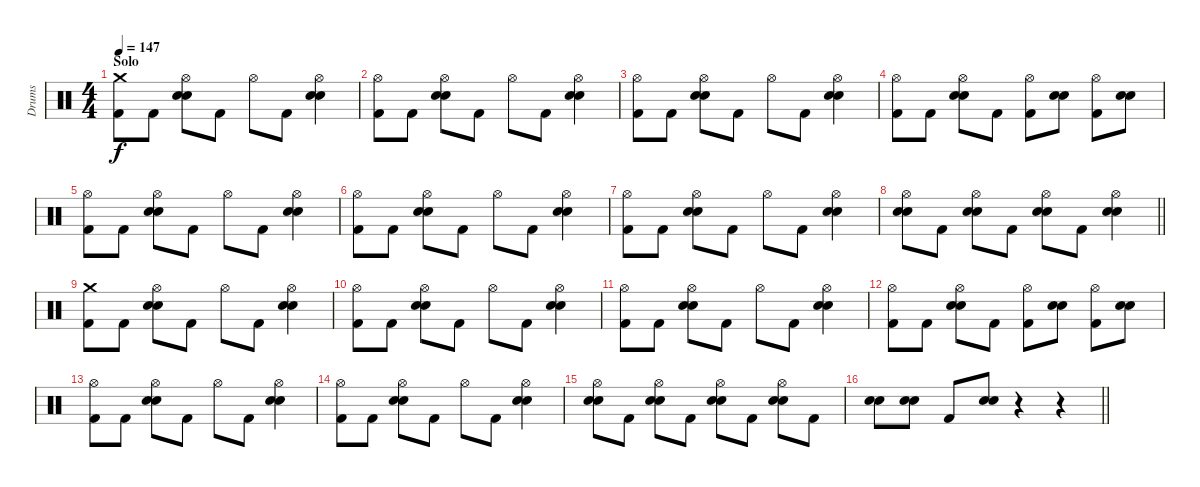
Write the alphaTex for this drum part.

\track ("Drums" "Drums") {instrument percussion}
\staff {score}
\articulation defaults
\ts (4 4)
\section ("" "Solo")
\tempo 147
\clef neutral
\ks c
("Crash medium (hit)" "Kick (hit) 2").8{dy f} "Kick (hit) 2".8 ("Hi-Hat (open)" "Electric Snare (hit)" "Snare (hit) 2").8 "Kick (hit) 2".8 "Hi-Hat (open)".8 "Kick (hit) 2".8 ("Hi-Hat (open)" "Electric Snare (hit)" "Snare (hit) 2").4 |
("Hi-Hat (open)" "Kick (hit) 2").8 "Kick (hit) 2".8 ("Hi-Hat (open)" "Electric Snare (hit)" "Snare (hit) 2").8 "Kick (hit) 2".8 "Hi-Hat (open)".8 "Kick (hit) 2".8 ("Hi-Hat (open)" "Electric Snare (hit)" "Snare (hit) 2").4 |
("Hi-Hat (open)" "Kick (hit) 2").8 "Kick (hit) 2".8 ("Hi-Hat (open)" "Electric Snare (hit)" "Snare (hit) 2").8 "Kick (hit) 2".8 "Hi-Hat (open)".8 "Kick (hit) 2".8 ("Hi-Hat (open)" "Electric Snare (hit)" "Snare (hit) 2").4 |
("Hi-Hat (open)" "Kick (hit) 2").8 "Kick (hit) 2".8 ("Hi-Hat (open)" "Electric Snare (hit)" "Snare (hit) 2").8 "Kick (hit) 2".8 ("Hi-Hat (open)" "Kick (hit) 2").8 ("Electric Snare (hit)" "Snare (hit) 2").8 ("Hi-Hat (open)" "Kick (hit) 2").8 ("Electric Snare (hit)" "Snare (hit) 2").8 |
("Hi-Hat (open)" "Kick (hit) 2").8 "Kick (hit) 2".8 ("Hi-Hat (open)" "Electric Snare (hit)" "Snare (hit) 2").8 "Kick (hit) 2".8 "Hi-Hat (open)".8 "Kick (hit) 2".8 ("Hi-Hat (open)" "Electric Snare (hit)" "Snare (hit) 2").4 |
("Hi-Hat (open)" "Kick (hit) 2").8 "Kick (hit) 2".8 ("Hi-Hat (open)" "Electric Snare (hit)" "Snare (hit) 2").8 "Kick (hit) 2".8 "Hi-Hat (open)".8 "Kick (hit) 2".8 ("Hi-Hat (open)" "Electric Snare (hit)" "Snare (hit) 2").4 |
("Hi-Hat (open)" "Kick (hit) 2").8 "Kick (hit) 2".8 ("Hi-Hat (open)" "Electric Snare (hit)" "Snare (hit) 2").8 "Kick (hit) 2".8 "Hi-Hat (open)".8 "Kick (hit) 2".8 ("Hi-Hat (open)" "Electric Snare (hit)" "Snare (hit) 2").4 |
\barLineRight lightlight
("Hi-Hat (open)" "Electric Snare (hit)" "Snare (hit) 2").8 "Kick (hit) 2".8 ("Hi-Hat (open)" "Electric Snare (hit)" "Snare (hit) 2").8 "Kick (hit) 2".8 ("Hi-Hat (open)" "Electric Snare (hit)" "Snare (hit) 2").8 "Kick (hit) 2".8 ("Hi-Hat (open)" "Electric Snare (hit)" "Snare (hit) 2").4 |
\section ("" "")
("Crash medium (hit)" "Kick (hit) 2").8 "Kick (hit) 2".8 ("Hi-Hat (open)" "Electric Snare (hit)" "Snare (hit) 2").8 "Kick (hit) 2".8 "Hi-Hat (open)".8 "Kick (hit) 2".8 ("Hi-Hat (open)" "Electric Snare (hit)" "Snare (hit) 2").4 |
("Hi-Hat (open)" "Kick (hit) 2").8 "Kick (hit) 2".8 ("Hi-Hat (open)" "Electric Snare (hit)" "Snare (hit) 2").8 "Kick (hit) 2".8 "Hi-Hat (open)".8 "Kick (hit) 2".8 ("Hi-Hat (open)" "Electric Snare (hit)" "Snare (hit) 2").4 |
("Hi-Hat (open)" "Kick (hit) 2").8 "Kick (hit) 2".8 ("Hi-Hat (open)" "Electric Snare (hit)" "Snare (hit) 2").8 "Kick (hit) 2".8 "Hi-Hat (open)".8 "Kick (hit) 2".8 ("Hi-Hat (open)" "Electric Snare (hit)" "Snare (hit) 2").4 |
("Hi-Hat (open)" "Kick (hit) 2").8 "Kick (hit) 2".8 ("Hi-Hat (open)" "Electric Snare (hit)" "Snare (hit) 2").8 "Kick (hit) 2".8 ("Hi-Hat (open)" "Kick (hit) 2").8 ("Electric Snare (hit)" "Snare (hit) 2").8 ("Hi-Hat (open)" "Kick (hit) 2").8 ("Electric Snare (hit)" "Snare (hit) 2").8 |
("Hi-Hat (open)" "Kick (hit) 2").8 "Kick (hit) 2".8 ("Hi-Hat (open)" "Electric Snare (hit)" "Snare (hit) 2").8 "Kick (hit) 2".8 "Hi-Hat (open)".8 "Kick (hit) 2".8 ("Hi-Hat (open)" "Electric Snare (hit)" "Snare (hit) 2").4 |
("Hi-Hat (open)" "Kick (hit) 2").8 "Kick (hit) 2".8 ("Hi-Hat (open)" "Electric Snare (hit)" "Snare (hit) 2").8 "Kick (hit) 2".8 "Hi-Hat (open)".8 "Kick (hit) 2".8 ("Hi-Hat (open)" "Electric Snare (hit)" "Snare (hit) 2").4 |
("Hi-Hat (open)" "Electric Snare (hit)" "Snare (hit) 2").8 "Kick (hit) 2".8 ("Hi-Hat (open)" "Electric Snare (hit)" "Snare (hit) 2").8 "Kick (hit) 2".8 ("Hi-Hat (open)" "Electric Snare (hit)" "Snare (hit) 2").8 "Kick (hit) 2".8 ("Hi-Hat (open)" "Electric Snare (hit)" "Snare (hit) 2").8 "Kick (hit) 2".8 |
\barLineRight lightlight
("Electric Snare (hit)" "Snare (hit) 2").8 ("Electric Snare (hit)" "Snare (hit) 2").8 "Kick (hit) 2".8 ("Electric Snare (hit)" "Snare (hit) 2").8 r.4 r.4
